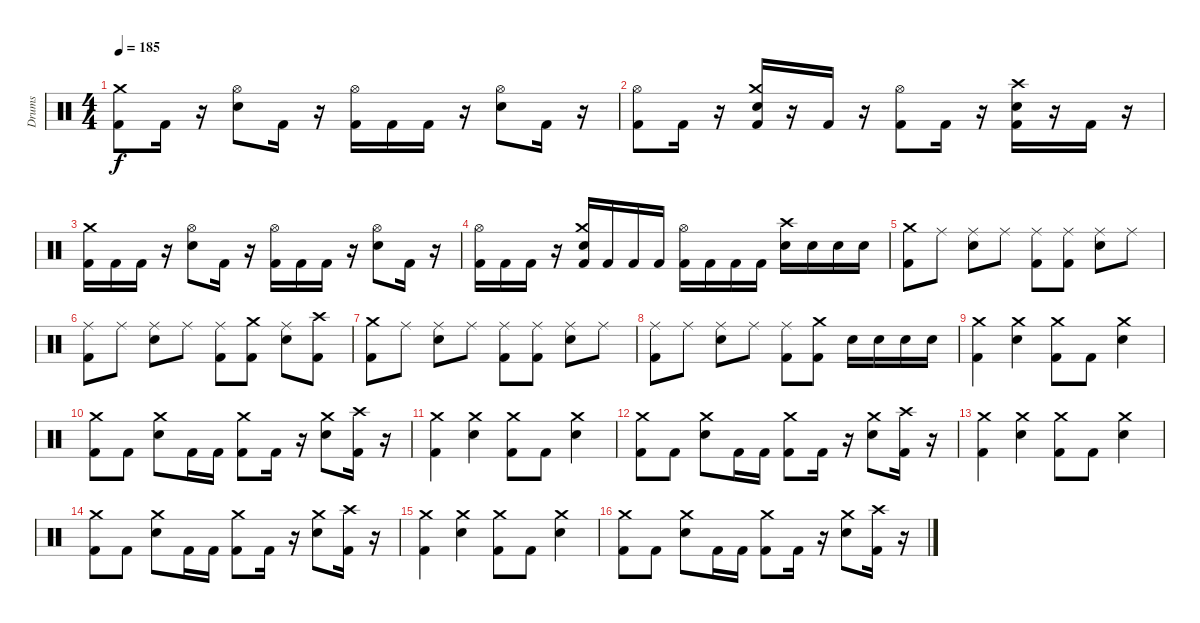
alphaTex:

\track ("Drums" "Drums") {instrument percussion}
\staff {score}
\articulation defaults
\ts (4 4)
\tempo 185
\clef neutral
\ks c
("Kick (hit) 2" "Crash medium (hit)").8{dy f} "Kick (hit) 2".16 r.16 ("Electric Snare (hit)" "Hi-Hat (open)").8 "Kick (hit) 2".16 r.16 ("Kick (hit) 2" "Hi-Hat (open)").16 "Kick (hit) 2".16 "Kick (hit) 2".16 r.16 ("Electric Snare (hit)" "Hi-Hat (open)").8 "Kick (hit) 2".16 r.16 |
("Kick (hit) 2" "Hi-Hat (open)").8 "Kick (hit) 2".16 r.16 ("Crash medium (hit)" "Electric Snare (hit)" "Kick (hit) 2").16 r.16 "Kick (hit) 2".16 r.16 ("Kick (hit) 2" "Hi-Hat (open)").8 "Kick (hit) 2".16 r.16 ("Crash high (hit)" "Electric Snare (hit)" "Kick (hit) 2").16 r.16 "Kick (hit) 2".16 r.16 |
("Kick (hit) 2" "Crash medium (hit)").16 "Kick (hit) 2".16 "Kick (hit) 2".16 r.16 ("Electric Snare (hit)" "Hi-Hat (open)").8 "Kick (hit) 2".16 r.16 ("Kick (hit) 2" "Hi-Hat (open)").16 "Kick (hit) 2".16 "Kick (hit) 2".16 r.16 ("Electric Snare (hit)" "Hi-Hat (open)").8 "Kick (hit) 2".16 r.16 |
("Kick (hit) 2" "Hi-Hat (open)").16 "Kick (hit) 2".16 "Kick (hit) 2".16 r.16 ("Crash medium (hit)" "Electric Snare (hit)" "Kick (hit) 2").16 "Kick (hit) 2".16 "Kick (hit) 2".16 "Kick (hit) 2".16 ("Kick (hit) 2" "Hi-Hat (open)").16 "Kick (hit) 2".16 "Kick (hit) 2".16 "Kick (hit) 2".16 ("Crash high (hit)" "Electric Snare (hit)").16 "Electric Snare (hit)".16 "Electric Snare (hit)".16 "Electric Snare (hit)".16 |
("Kick (hit) 2" "Crash medium (hit)").8 "Ride (middle)".8 ("Electric Snare (hit)" "Ride (middle)").8 "Ride (middle)".8 ("Kick (hit) 2" "Ride (middle)").8 ("Kick (hit) 2" "Ride (middle)").8 ("Electric Snare (hit)" "Ride (middle)").8 "Ride (middle)".8 |
("Kick (hit) 2" "Ride (middle)").8 "Ride (middle)".8 ("Electric Snare (hit)" "Ride (middle)").8 "Ride (middle)".8 ("Kick (hit) 2" "Ride (middle)").8 ("Kick (hit) 2" "Crash medium (hit)").8 ("Electric Snare (hit)" "Ride (middle)").8 ("Kick (hit) 2" "Crash high (hit)").8 |
("Kick (hit) 2" "Crash medium (hit)").8 "Ride (middle)".8 ("Electric Snare (hit)" "Ride (middle)").8 "Ride (middle)".8 ("Kick (hit) 2" "Ride (middle)").8 ("Kick (hit) 2" "Ride (middle)").8 ("Electric Snare (hit)" "Ride (middle)").8 "Ride (middle)".8 |
("Kick (hit) 2" "Ride (middle)").8 "Ride (middle)".8 ("Electric Snare (hit)" "Ride (middle)").8 "Ride (middle)".8 ("Kick (hit) 2" "Ride (middle)").8 ("Kick (hit) 2" "Crash medium (hit)").8 "Electric Snare (hit)".16 "Electric Snare (hit)".16 "Electric Snare (hit)".16 "Electric Snare (hit)".16 |
("Kick (hit) 2" "Crash medium (hit)").4 ("Electric Snare (hit)" "Crash medium (hit)").4 ("Kick (hit) 2" "Crash medium (hit)").8 "Kick (hit) 2".8 ("Electric Snare (hit)" "Crash medium (hit)").4 |
("Kick (hit) 2" "Crash medium (hit)").8 "Kick (hit) 2".8 ("Electric Snare (hit)" "Crash medium (hit)").8 "Kick (hit) 2".16 "Kick (hit) 2".16 ("Kick (hit) 2" "Crash medium (hit)").8 "Kick (hit) 2".16 r.16 ("Electric Snare (hit)" "Crash medium (hit)").8 ("Crash high (hit)" "Kick (hit) 2").16 r.16 |
("Kick (hit) 2" "Crash medium (hit)").4 ("Electric Snare (hit)" "Crash medium (hit)").4 ("Kick (hit) 2" "Crash medium (hit)").8 "Kick (hit) 2".8 ("Electric Snare (hit)" "Crash medium (hit)").4 |
("Kick (hit) 2" "Crash medium (hit)").8 "Kick (hit) 2".8 ("Electric Snare (hit)" "Crash medium (hit)").8 "Kick (hit) 2".16 "Kick (hit) 2".16 ("Kick (hit) 2" "Crash medium (hit)").8 "Kick (hit) 2".16 r.16 ("Electric Snare (hit)" "Crash medium (hit)").8 ("Crash high (hit)" "Kick (hit) 2").16 r.16 |
("Kick (hit) 2" "Crash medium (hit)").4 ("Electric Snare (hit)" "Crash medium (hit)").4 ("Kick (hit) 2" "Crash medium (hit)").8 "Kick (hit) 2".8 ("Electric Snare (hit)" "Crash medium (hit)").4 |
("Kick (hit) 2" "Crash medium (hit)").8 "Kick (hit) 2".8 ("Electric Snare (hit)" "Crash medium (hit)").8 "Kick (hit) 2".16 "Kick (hit) 2".16 ("Kick (hit) 2" "Crash medium (hit)").8 "Kick (hit) 2".16 r.16 ("Electric Snare (hit)" "Crash medium (hit)").8 ("Crash high (hit)" "Kick (hit) 2").16 r.16 |
("Kick (hit) 2" "Crash medium (hit)").4 ("Electric Snare (hit)" "Crash medium (hit)").4 ("Kick (hit) 2" "Crash medium (hit)").8 "Kick (hit) 2".8 ("Electric Snare (hit)" "Crash medium (hit)").4 |
("Kick (hit) 2" "Crash medium (hit)").8 "Kick (hit) 2".8 ("Electric Snare (hit)" "Crash medium (hit)").8 "Kick (hit) 2".16 "Kick (hit) 2".16 ("Kick (hit) 2" "Crash medium (hit)").8 "Kick (hit) 2".16 r.16 ("Electric Snare (hit)" "Crash medium (hit)").8 ("Crash high (hit)" "Kick (hit) 2").16 r.16
